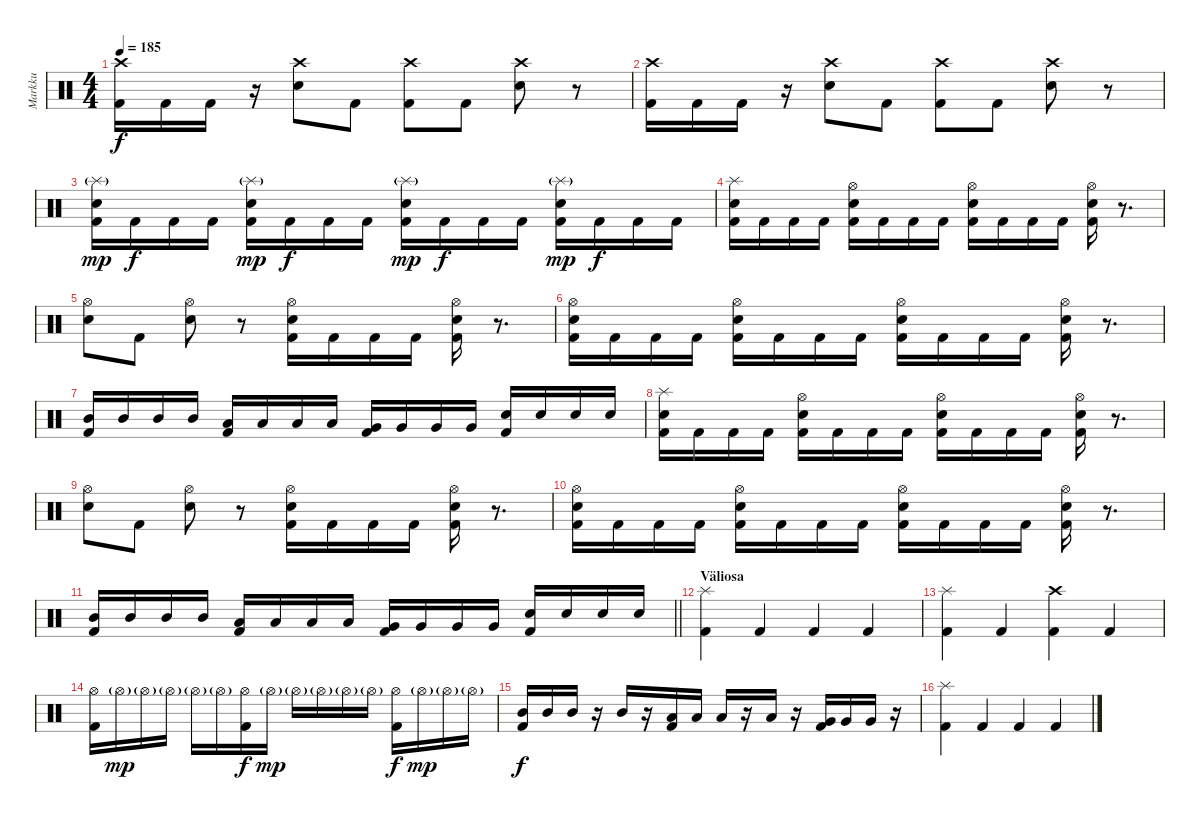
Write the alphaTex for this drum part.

\track ("Markku" "Markku") {instrument percussion}
\staff {score}
\articulation defaults
\ts (4 4)
\tempo 185
\clef neutral
\ks c
("Kick (hit) 2" "Crash high (hit)").16{dy f} "Kick (hit) 2".16 "Kick (hit) 2".16 r.16 ("Snare (hit) 2" "Crash high (hit)").8 "Kick (hit) 2".8 ("Kick (hit) 2" "Crash high (hit)").8 "Kick (hit) 2".8 ("Snare (hit) 2" "Crash high (hit)").8 r.8 |
("Kick (hit) 2" "Crash high (hit)").16 "Kick (hit) 2".16 "Kick (hit) 2".16 r.16 ("Snare (hit) 2" "Crash high (hit)").8 "Kick (hit) 2".8 ("Kick (hit) 2" "Crash high (hit)").8 "Kick (hit) 2".8 ("Snare (hit) 2" "Crash high (hit)").8 r.8 |
("Kick (hit) 2" "Snare (hit) 2" "Splash (hit)"{g}).16{dy mp} "Kick (hit) 2".16{dy f} "Kick (hit) 2".16 "Kick (hit) 2".16 ("Kick (hit) 2" "Snare (hit) 2" "Splash (hit)"{g}).16{dy mp} "Kick (hit) 2".16{dy f} "Kick (hit) 2".16 "Kick (hit) 2".16 ("Kick (hit) 2" "Snare (hit) 2" "Splash (hit)"{g}).16{dy mp} "Kick (hit) 2".16{dy f} "Kick (hit) 2".16 "Kick (hit) 2".16 ("Kick (hit) 2" "Snare (hit) 2" "Splash (hit)"{g}).16{dy mp} "Kick (hit) 2".16{dy f} "Kick (hit) 2".16 "Kick (hit) 2".16 |
("Kick (hit) 2" "Snare (hit) 2" "Splash (hit)").16 "Kick (hit) 2".16 "Kick (hit) 2".16 "Kick (hit) 2".16 ("Kick (hit) 2" "Snare (hit) 2" "Hi-Hat (open)").16 "Kick (hit) 2".16 "Kick (hit) 2".16 "Kick (hit) 2".16 ("Kick (hit) 2" "Snare (hit) 2" "Hi-Hat (open)").16 "Kick (hit) 2".16 "Kick (hit) 2".16 "Kick (hit) 2".16 ("Kick (hit) 2" "Snare (hit) 2" "Hi-Hat (open)").16 r.8{d} |
("Snare (hit) 2" "Hi-Hat (open)").8 "Kick (hit) 2".8 ("Snare (hit) 2" "Hi-Hat (open)").8 r.8 ("Kick (hit) 2" "Snare (hit) 2" "Hi-Hat (open)").16 "Kick (hit) 2".16 "Kick (hit) 2".16 "Kick (hit) 2".16 ("Kick (hit) 2" "Snare (hit) 2" "Hi-Hat (open)").16 r.8{d} |
("Kick (hit) 2" "Snare (hit) 2" "Hi-Hat (open)").16 "Kick (hit) 2".16 "Kick (hit) 2".16 "Kick (hit) 2".16 ("Kick (hit) 2" "Snare (hit) 2" "Hi-Hat (open)").16 "Kick (hit) 2".16 "Kick (hit) 2".16 "Kick (hit) 2".16 ("Kick (hit) 2" "Snare (hit) 2" "Hi-Hat (open)").16 "Kick (hit) 2".16 "Kick (hit) 2".16 "Kick (hit) 2".16 ("Kick (hit) 2" "Snare (hit) 2" "Hi-Hat (open)").16 r.8{d} |
("Kick (hit) 2" "Mid Tom (hit)").16 "Mid Tom (hit)".16 "Mid Tom (hit)".16 "Mid Tom (hit)".16 ("Kick (hit) 2" "Low Tom (hit)").16 "Low Tom (hit)".16 "Low Tom (hit)".16 "Low Tom (hit)".16 ("Kick (hit) 2" "Very Low Tom (hit)").16 "Very Low Tom (hit)".16 "Very Low Tom (hit)".16 "Very Low Tom (hit)".16 ("Kick (hit) 2" "Snare (hit) 2").16 "Snare (hit) 2".16 "Snare (hit) 2".16 "Snare (hit) 2".16 |
("Kick (hit) 2" "Snare (hit) 2" "Splash (hit)").16 "Kick (hit) 2".16 "Kick (hit) 2".16 "Kick (hit) 2".16 ("Kick (hit) 2" "Snare (hit) 2" "Hi-Hat (open)").16 "Kick (hit) 2".16 "Kick (hit) 2".16 "Kick (hit) 2".16 ("Kick (hit) 2" "Snare (hit) 2" "Hi-Hat (open)").16 "Kick (hit) 2".16 "Kick (hit) 2".16 "Kick (hit) 2".16 ("Kick (hit) 2" "Snare (hit) 2" "Hi-Hat (open)").16 r.8{d} |
("Snare (hit) 2" "Hi-Hat (open)").8 "Kick (hit) 2".8 ("Snare (hit) 2" "Hi-Hat (open)").8 r.8 ("Kick (hit) 2" "Snare (hit) 2" "Hi-Hat (open)").16 "Kick (hit) 2".16 "Kick (hit) 2".16 "Kick (hit) 2".16 ("Kick (hit) 2" "Snare (hit) 2" "Hi-Hat (open)").16 r.8{d} |
("Kick (hit) 2" "Snare (hit) 2" "Hi-Hat (open)").16 "Kick (hit) 2".16 "Kick (hit) 2".16 "Kick (hit) 2".16 ("Kick (hit) 2" "Snare (hit) 2" "Hi-Hat (open)").16 "Kick (hit) 2".16 "Kick (hit) 2".16 "Kick (hit) 2".16 ("Kick (hit) 2" "Snare (hit) 2" "Hi-Hat (open)").16 "Kick (hit) 2".16 "Kick (hit) 2".16 "Kick (hit) 2".16 ("Kick (hit) 2" "Snare (hit) 2" "Hi-Hat (open)").16 r.8{d} |
\barLineRight lightlight
("Kick (hit) 2" "Mid Tom (hit)").16 "Mid Tom (hit)".16 "Mid Tom (hit)".16 "Mid Tom (hit)".16 ("Kick (hit) 2" "Low Tom (hit)").16 "Low Tom (hit)".16 "Low Tom (hit)".16 "Low Tom (hit)".16 ("Kick (hit) 2" "Very Low Tom (hit)").16 "Very Low Tom (hit)".16 "Very Low Tom (hit)".16 "Very Low Tom (hit)".16 ("Kick (hit) 2" "Snare (hit) 2").16 "Snare (hit) 2".16 "Snare (hit) 2".16 "Snare (hit) 2".16 |
\section ("" "Väliosa")
("Kick (hit) 2" "Splash (hit)").4 "Kick (hit) 2".4 "Kick (hit) 2".4 "Kick (hit) 2".4 |
("Kick (hit) 2" "Splash (hit)").4 "Kick (hit) 2".4 ("Kick (hit) 2" "Crash high (hit)").4 "Kick (hit) 2".4 |
("Kick (hit) 2" "Hi-Hat (open)").16 "Hi-Hat (open)"{g}.16{dy mp} "Hi-Hat (open)"{g}.16 "Hi-Hat (open)"{g}.16 "Hi-Hat (open)"{g}.16 "Hi-Hat (open)"{g}.16 ("Kick (hit) 2" "Hi-Hat (open)").16{dy f} "Hi-Hat (open)"{g}.16{dy mp} "Hi-Hat (open)"{g}.16 "Hi-Hat (open)"{g}.16 "Hi-Hat (open)"{g}.16 "Hi-Hat (open)"{g}.16 ("Kick (hit) 2" "Hi-Hat (open)").16{dy f} "Hi-Hat (open)"{g}.16{dy mp} "Hi-Hat (open)"{g}.16 "Hi-Hat (open)"{g}.16 |
("Kick (hit) 2" "Mid Tom (hit)").16{dy f} "Mid Tom (hit)".16 "Mid Tom (hit)".16 r.16 "Mid Tom (hit)".16 r.16 ("Kick (hit) 2" "Low Tom (hit)").16 "Low Tom (hit)".16 "Low Tom (hit)".16 r.16 "Low Tom (hit)".16 r.16 ("Kick (hit) 2" "Very Low Tom (hit)").16 "Very Low Tom (hit)".16 "Very Low Tom (hit)".16 r.16 |
("Kick (hit) 2" "Splash (hit)").4 "Kick (hit) 2".4 "Kick (hit) 2".4 "Kick (hit) 2".4
